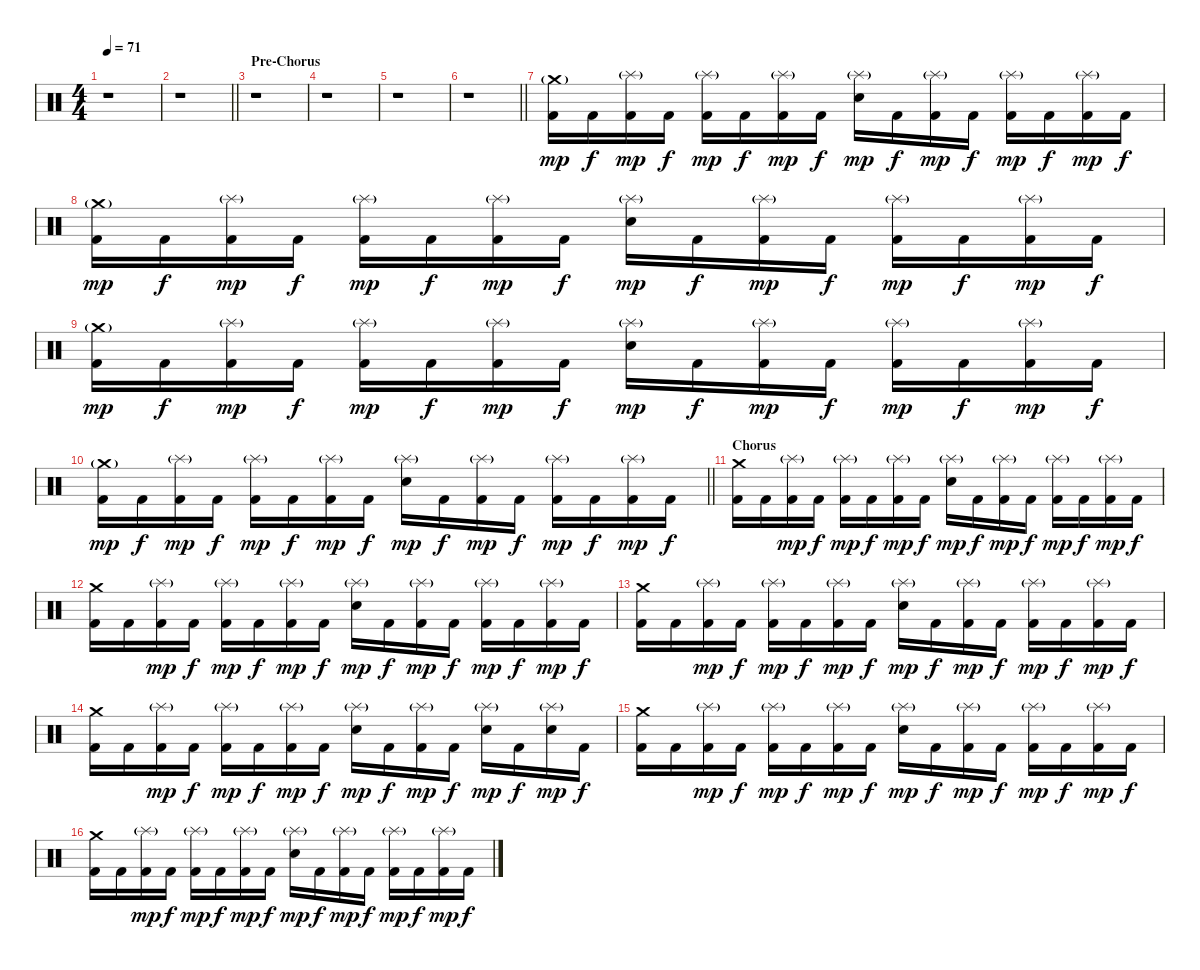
\track "" {instrument percussion}
\staff {score}
\articulation defaults
\ts (4 4)
\tempo 71
\clef neutral
\ks c
r.1{dy mp} |
\barLineRight lightlight
r.1 |
\section ("" "Pre-Chorus")
r.1 |
r.1 |
r.1 |
\barLineRight lightlight
r.1 |
("Crash medium (hit)"{g} "Kick (hit) 2").16 "Kick (hit) 2".16{dy f} ("Splash (hit)"{g} "Kick (hit) 2").16{dy mp} "Kick (hit) 2".16{dy f} ("Splash (hit)"{g} "Kick (hit) 2").16{dy mp} "Kick (hit) 2".16{dy f} ("Splash (hit)"{g} "Kick (hit) 2").16{dy mp} "Kick (hit) 2".16{dy f} ("Splash (hit)"{g} "Snare (hit) 2").16{dy mp} "Kick (hit) 2".16{dy f} ("Splash (hit)"{g} "Kick (hit) 2").16{dy mp} "Kick (hit) 2".16{dy f} ("Splash (hit)"{g} "Kick (hit) 2").16{dy mp} "Kick (hit) 2".16{dy f} ("Splash (hit)"{g} "Kick (hit) 2").16{dy mp} "Kick (hit) 2".16{dy f} |
("Crash medium (hit)"{g} "Kick (hit) 2").16{dy mp} "Kick (hit) 2".16{dy f} ("Splash (hit)"{g} "Kick (hit) 2").16{dy mp} "Kick (hit) 2".16{dy f} ("Splash (hit)"{g} "Kick (hit) 2").16{dy mp} "Kick (hit) 2".16{dy f} ("Splash (hit)"{g} "Kick (hit) 2").16{dy mp} "Kick (hit) 2".16{dy f} ("Splash (hit)"{g} "Snare (hit) 2").16{dy mp} "Kick (hit) 2".16{dy f} ("Splash (hit)"{g} "Kick (hit) 2").16{dy mp} "Kick (hit) 2".16{dy f} ("Splash (hit)"{g} "Kick (hit) 2").16{dy mp} "Kick (hit) 2".16{dy f} ("Splash (hit)"{g} "Kick (hit) 2").16{dy mp} "Kick (hit) 2".16{dy f} |
("Crash medium (hit)"{g} "Kick (hit) 2").16{dy mp} "Kick (hit) 2".16{dy f} ("Splash (hit)"{g} "Kick (hit) 2").16{dy mp} "Kick (hit) 2".16{dy f} ("Splash (hit)"{g} "Kick (hit) 2").16{dy mp} "Kick (hit) 2".16{dy f} ("Splash (hit)"{g} "Kick (hit) 2").16{dy mp} "Kick (hit) 2".16{dy f} ("Splash (hit)"{g} "Snare (hit) 2").16{dy mp} "Kick (hit) 2".16{dy f} ("Splash (hit)"{g} "Kick (hit) 2").16{dy mp} "Kick (hit) 2".16{dy f} ("Splash (hit)"{g} "Kick (hit) 2").16{dy mp} "Kick (hit) 2".16{dy f} ("Splash (hit)"{g} "Kick (hit) 2").16{dy mp} "Kick (hit) 2".16{dy f} |
\barLineRight lightlight
("Crash medium (hit)"{g} "Kick (hit) 2").16{dy mp} "Kick (hit) 2".16{dy f} ("Splash (hit)"{g} "Kick (hit) 2").16{dy mp} "Kick (hit) 2".16{dy f} ("Splash (hit)"{g} "Kick (hit) 2").16{dy mp} "Kick (hit) 2".16{dy f} ("Splash (hit)"{g} "Kick (hit) 2").16{dy mp} "Kick (hit) 2".16{dy f} ("Splash (hit)"{g} "Snare (hit) 2").16{dy mp} "Kick (hit) 2".16{dy f} ("Splash (hit)"{g} "Kick (hit) 2").16{dy mp} "Kick (hit) 2".16{dy f} ("Splash (hit)"{g} "Kick (hit) 2").16{dy mp} "Kick (hit) 2".16{dy f} ("Splash (hit)"{g} "Kick (hit) 2").16{dy mp} "Kick (hit) 2".16{dy f} |
\section ("" "Chorus")
("Crash medium (hit)" "Kick (hit) 2").16 "Kick (hit) 2".16 ("Splash (hit)"{g} "Kick (hit) 2").16{dy mp} "Kick (hit) 2".16{dy f} ("Splash (hit)"{g} "Kick (hit) 2").16{dy mp} "Kick (hit) 2".16{dy f} ("Splash (hit)"{g} "Kick (hit) 2").16{dy mp} "Kick (hit) 2".16{dy f} ("Splash (hit)"{g} "Snare (hit) 2").16{dy mp} "Kick (hit) 2".16{dy f} ("Splash (hit)"{g} "Kick (hit) 2").16{dy mp} "Kick (hit) 2".16{dy f} ("Splash (hit)"{g} "Kick (hit) 2").16{dy mp} "Kick (hit) 2".16{dy f} ("Splash (hit)"{g} "Kick (hit) 2").16{dy mp} "Kick (hit) 2".16{dy f} |
("Crash medium (hit)" "Kick (hit) 2").16 "Kick (hit) 2".16 ("Splash (hit)"{g} "Kick (hit) 2").16{dy mp} "Kick (hit) 2".16{dy f} ("Splash (hit)"{g} "Kick (hit) 2").16{dy mp} "Kick (hit) 2".16{dy f} ("Splash (hit)"{g} "Kick (hit) 2").16{dy mp} "Kick (hit) 2".16{dy f} ("Splash (hit)"{g} "Snare (hit) 2").16{dy mp} "Kick (hit) 2".16{dy f} ("Splash (hit)"{g} "Kick (hit) 2").16{dy mp} "Kick (hit) 2".16{dy f} ("Splash (hit)"{g} "Kick (hit) 2").16{dy mp} "Kick (hit) 2".16{dy f} ("Splash (hit)"{g} "Kick (hit) 2").16{dy mp} "Kick (hit) 2".16{dy f} |
("Crash medium (hit)" "Kick (hit) 2").16 "Kick (hit) 2".16 ("Splash (hit)"{g} "Kick (hit) 2").16{dy mp} "Kick (hit) 2".16{dy f} ("Splash (hit)"{g} "Kick (hit) 2").16{dy mp} "Kick (hit) 2".16{dy f} ("Splash (hit)"{g} "Kick (hit) 2").16{dy mp} "Kick (hit) 2".16{dy f} ("Splash (hit)"{g} "Snare (hit) 2").16{dy mp} "Kick (hit) 2".16{dy f} ("Splash (hit)"{g} "Kick (hit) 2").16{dy mp} "Kick (hit) 2".16{dy f} ("Splash (hit)"{g} "Kick (hit) 2").16{dy mp} "Kick (hit) 2".16{dy f} ("Splash (hit)"{g} "Kick (hit) 2").16{dy mp} "Kick (hit) 2".16{dy f} |
("Crash medium (hit)" "Kick (hit) 2").16 "Kick (hit) 2".16 ("Splash (hit)"{g} "Kick (hit) 2").16{dy mp} "Kick (hit) 2".16{dy f} ("Splash (hit)"{g} "Kick (hit) 2").16{dy mp} "Kick (hit) 2".16{dy f} ("Splash (hit)"{g} "Kick (hit) 2").16{dy mp} "Kick (hit) 2".16{dy f} ("Splash (hit)"{g} "Snare (hit) 2").16{dy mp} "Kick (hit) 2".16{dy f} ("Splash (hit)"{g} "Kick (hit) 2").16{dy mp} "Kick (hit) 2".16{dy f} ("Splash (hit)"{g} "Snare (hit) 2").16{dy mp} "Kick (hit) 2".16{dy f} ("Splash (hit)"{g} "Snare (hit) 2").16{dy mp} "Kick (hit) 2".16{dy f} |
("Crash medium (hit)" "Kick (hit) 2").16 "Kick (hit) 2".16 ("Splash (hit)"{g} "Kick (hit) 2").16{dy mp} "Kick (hit) 2".16{dy f} ("Splash (hit)"{g} "Kick (hit) 2").16{dy mp} "Kick (hit) 2".16{dy f} ("Splash (hit)"{g} "Kick (hit) 2").16{dy mp} "Kick (hit) 2".16{dy f} ("Splash (hit)"{g} "Snare (hit) 2").16{dy mp} "Kick (hit) 2".16{dy f} ("Splash (hit)"{g} "Kick (hit) 2").16{dy mp} "Kick (hit) 2".16{dy f} ("Splash (hit)"{g} "Kick (hit) 2").16{dy mp} "Kick (hit) 2".16{dy f} ("Splash (hit)"{g} "Kick (hit) 2").16{dy mp} "Kick (hit) 2".16{dy f} |
("Crash medium (hit)" "Kick (hit) 2").16 "Kick (hit) 2".16 ("Splash (hit)"{g} "Kick (hit) 2").16{dy mp} "Kick (hit) 2".16{dy f} ("Splash (hit)"{g} "Kick (hit) 2").16{dy mp} "Kick (hit) 2".16{dy f} ("Splash (hit)"{g} "Kick (hit) 2").16{dy mp} "Kick (hit) 2".16{dy f} ("Splash (hit)"{g} "Snare (hit) 2").16{dy mp} "Kick (hit) 2".16{dy f} ("Splash (hit)"{g} "Kick (hit) 2").16{dy mp} "Kick (hit) 2".16{dy f} ("Splash (hit)"{g} "Kick (hit) 2").16{dy mp} "Kick (hit) 2".16{dy f} ("Splash (hit)"{g} "Kick (hit) 2").16{dy mp} "Kick (hit) 2".16{dy f}
